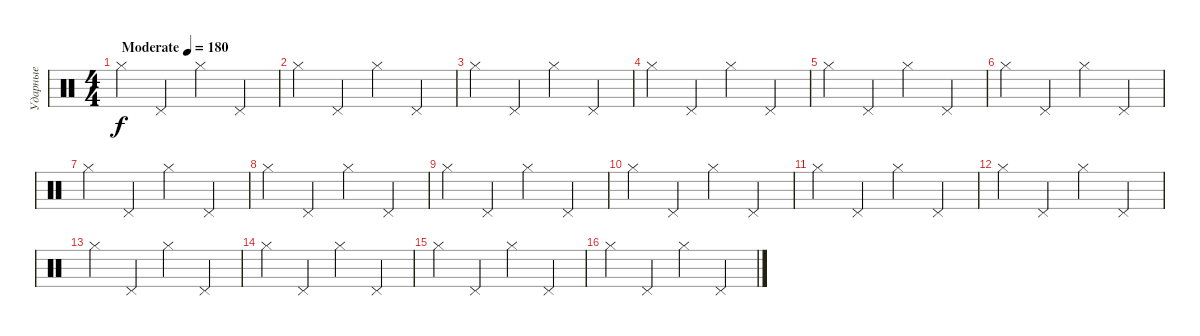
\track ("Ударные" "Ударные") {instrument percussion}
\staff {score}
\articulation defaults
\ts (4 4)
\tempo (180 "Moderate")
\clef neutral
\ks c "Hi-Hat (closed)".4{dy f} "Pedal Hi-Hat (hit)".4 "Hi-Hat (closed)".4 "Pedal Hi-Hat (hit)".4
|
"Hi-Hat (closed)".4 "Pedal Hi-Hat (hit)".4 "Hi-Hat (closed)".4 "Pedal Hi-Hat (hit)".4 |
"Hi-Hat (closed)".4 "Pedal Hi-Hat (hit)".4 "Hi-Hat (closed)".4 "Pedal Hi-Hat (hit)".4 |
"Hi-Hat (closed)".4 "Pedal Hi-Hat (hit)".4 "Hi-Hat (closed)".4 "Pedal Hi-Hat (hit)".4 |
"Hi-Hat (closed)".4 "Pedal Hi-Hat (hit)".4 "Hi-Hat (closed)".4 "Pedal Hi-Hat (hit)".4 |
"Hi-Hat (closed)".4 "Pedal Hi-Hat (hit)".4 "Hi-Hat (closed)".4 "Pedal Hi-Hat (hit)".4 |
"Hi-Hat (closed)".4 "Pedal Hi-Hat (hit)".4 "Hi-Hat (closed)".4 "Pedal Hi-Hat (hit)".4 |
"Hi-Hat (closed)".4 "Pedal Hi-Hat (hit)".4 "Hi-Hat (closed)".4 "Pedal Hi-Hat (hit)".4 |
"Hi-Hat (closed)".4 "Pedal Hi-Hat (hit)".4 "Hi-Hat (closed)".4 "Pedal Hi-Hat (hit)".4 |
"Hi-Hat (closed)".4 "Pedal Hi-Hat (hit)".4 "Hi-Hat (closed)".4 "Pedal Hi-Hat (hit)".4 |
"Hi-Hat (closed)".4 "Pedal Hi-Hat (hit)".4 "Hi-Hat (closed)".4 "Pedal Hi-Hat (hit)".4 |
"Hi-Hat (closed)".4 "Pedal Hi-Hat (hit)".4 "Hi-Hat (closed)".4 "Pedal Hi-Hat (hit)".4 |
"Hi-Hat (closed)".4 "Pedal Hi-Hat (hit)".4 "Hi-Hat (closed)".4 "Pedal Hi-Hat (hit)".4 |
"Hi-Hat (closed)".4 "Pedal Hi-Hat (hit)".4 "Hi-Hat (closed)".4 "Pedal Hi-Hat (hit)".4 |
"Hi-Hat (closed)".4 "Pedal Hi-Hat (hit)".4 "Hi-Hat (closed)".4 "Pedal Hi-Hat (hit)".4 |
"Hi-Hat (closed)".4 "Pedal Hi-Hat (hit)".4 "Hi-Hat (closed)".4 "Pedal Hi-Hat (hit)".4
